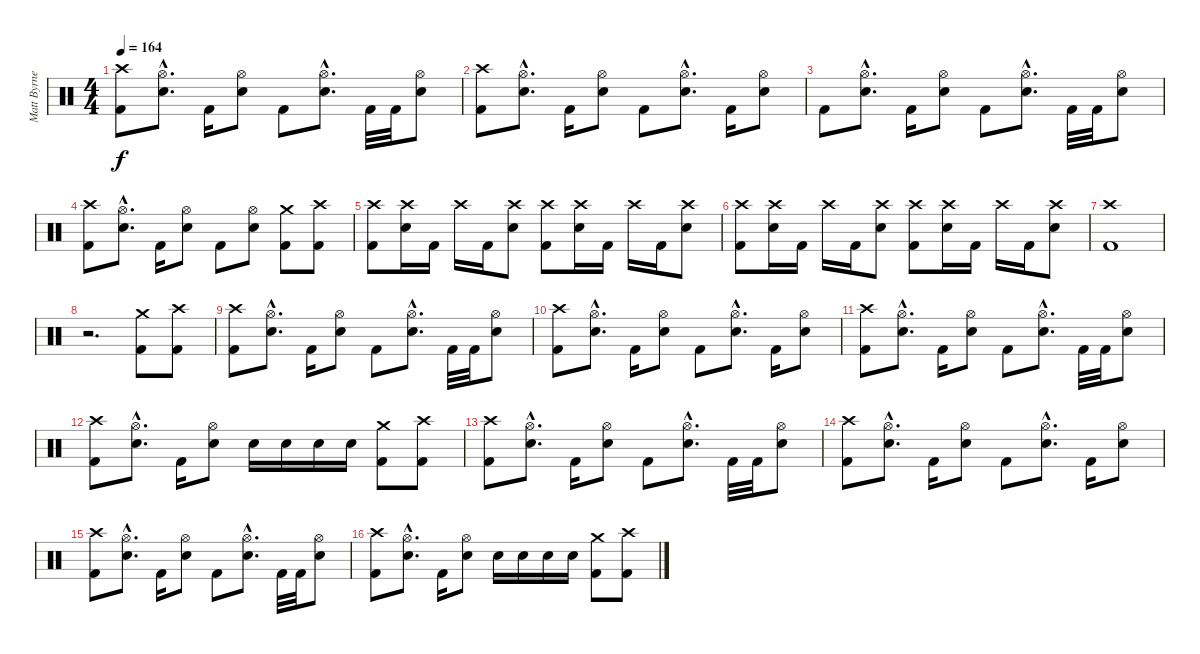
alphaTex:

\track ("Matt Byrne (Drums)" "Matt Byrne") {instrument percussion}
\staff {score}
\articulation defaults
\ts (4 4)
\tempo 164
\clef neutral
\ks c
("Crash high (hit)" "Kick (hit) 2").8{dy f} ("Hi-Hat (open)"{hac} "Snare (hit) 2"{hac}).8{d} "Kick (hit) 2".16 ("Hi-Hat (open)" "Snare (hit) 2").8 "Kick (hit) 2".8 ("Hi-Hat (open)"{hac} "Snare (hit) 2"{hac}).8{d} "Kick (hit) 2".32 "Kick (hit) 2".32 ("Hi-Hat (open)" "Snare (hit) 2").8 |
("Crash high (hit)" "Kick (hit) 2").8 ("Hi-Hat (open)"{hac} "Snare (hit) 2"{hac}).8{d} "Kick (hit) 2".16 ("Hi-Hat (open)" "Snare (hit) 2").8 "Kick (hit) 2".8 ("Hi-Hat (open)"{hac} "Snare (hit) 2"{hac}).8{d} "Kick (hit) 2".16 ("Hi-Hat (open)" "Snare (hit) 2").8 |
"Kick (hit) 2".8 ("Hi-Hat (open)"{hac} "Snare (hit) 2"{hac}).8{d} "Kick (hit) 2".16 ("Hi-Hat (open)" "Snare (hit) 2").8 "Kick (hit) 2".8 ("Hi-Hat (open)"{hac} "Snare (hit) 2"{hac}).8{d} "Kick (hit) 2".32 "Kick (hit) 2".32 ("Hi-Hat (open)" "Snare (hit) 2").8 |
("Crash high (hit)" "Kick (hit) 2").8 ("Hi-Hat (open)"{hac} "Snare (hit) 2"{hac}).8{d} "Kick (hit) 2".16 ("Hi-Hat (open)" "Snare (hit) 2").8 "Kick (hit) 2".8 ("Hi-Hat (open)" "Snare (hit) 2").8 ("Crash medium (hit)" "Kick (hit) 2").8 ("Crash high (hit)" "Kick (hit) 2").8 |
("Crash high (hit)" "Kick (hit) 2").8 ("Crash high (hit)" "Snare (hit) 2").16 "Kick (hit) 2".16 "Crash high (hit)".16 "Kick (hit) 2".16 ("Crash high (hit)" "Snare (hit) 2").8 ("Crash high (hit)" "Kick (hit) 2").8 ("Crash high (hit)" "Snare (hit) 2").16 "Kick (hit) 2".16 "Crash high (hit)".16 "Kick (hit) 2".16 ("Crash high (hit)" "Snare (hit) 2").8 |
("Crash high (hit)" "Kick (hit) 2").8 ("Crash high (hit)" "Snare (hit) 2").16 "Kick (hit) 2".16 "Crash high (hit)".16 "Kick (hit) 2".16 ("Crash high (hit)" "Snare (hit) 2").8 ("Crash high (hit)" "Kick (hit) 2").8 ("Crash high (hit)" "Snare (hit) 2").16 "Kick (hit) 2".16 "Crash high (hit)".16 "Kick (hit) 2".16 ("Crash high (hit)" "Snare (hit) 2").8 |
("Crash high (hit)" "Kick (hit) 2").1 |
r.2{d} ("Crash medium (hit)" "Kick (hit) 2").8 ("Crash high (hit)" "Kick (hit) 2").8 |
("Crash high (hit)" "Kick (hit) 2").8 ("Hi-Hat (open)"{hac} "Snare (hit) 2"{hac}).8{d} "Kick (hit) 2".16 ("Hi-Hat (open)" "Snare (hit) 2").8 "Kick (hit) 2".8 ("Hi-Hat (open)"{hac} "Snare (hit) 2"{hac}).8{d} "Kick (hit) 2".32 "Kick (hit) 2".32 ("Hi-Hat (open)" "Snare (hit) 2").8 |
("Crash high (hit)" "Kick (hit) 2").8 ("Hi-Hat (open)"{hac} "Snare (hit) 2"{hac}).8{d} "Kick (hit) 2".16 ("Hi-Hat (open)" "Snare (hit) 2").8 "Kick (hit) 2".8 ("Hi-Hat (open)"{hac} "Snare (hit) 2"{hac}).8{d} "Kick (hit) 2".16 ("Hi-Hat (open)" "Snare (hit) 2").8 |
("Crash high (hit)" "Kick (hit) 2").8 ("Hi-Hat (open)"{hac} "Snare (hit) 2"{hac}).8{d} "Kick (hit) 2".16 ("Hi-Hat (open)" "Snare (hit) 2").8 "Kick (hit) 2".8 ("Hi-Hat (open)"{hac} "Snare (hit) 2"{hac}).8{d} "Kick (hit) 2".32 "Kick (hit) 2".32 ("Hi-Hat (open)" "Snare (hit) 2").8 |
("Crash high (hit)" "Kick (hit) 2").8 ("Hi-Hat (open)"{hac} "Snare (hit) 2"{hac}).8{d} "Kick (hit) 2".16 ("Hi-Hat (open)" "Snare (hit) 2").8 "Snare (hit) 2".16 "Snare (hit) 2".16 "Snare (hit) 2".16 "Snare (hit) 2".16 ("Crash medium (hit)" "Kick (hit) 2").8 ("Crash high (hit)" "Kick (hit) 2").8 |
("Crash high (hit)" "Kick (hit) 2").8 ("Hi-Hat (open)"{hac} "Snare (hit) 2"{hac}).8{d} "Kick (hit) 2".16 ("Hi-Hat (open)" "Snare (hit) 2").8 "Kick (hit) 2".8 ("Hi-Hat (open)"{hac} "Snare (hit) 2"{hac}).8{d} "Kick (hit) 2".32 "Kick (hit) 2".32 ("Hi-Hat (open)" "Snare (hit) 2").8 |
("Crash high (hit)" "Kick (hit) 2").8 ("Hi-Hat (open)"{hac} "Snare (hit) 2"{hac}).8{d} "Kick (hit) 2".16 ("Hi-Hat (open)" "Snare (hit) 2").8 "Kick (hit) 2".8 ("Hi-Hat (open)"{hac} "Snare (hit) 2"{hac}).8{d} "Kick (hit) 2".16 ("Hi-Hat (open)" "Snare (hit) 2").8 |
("Crash high (hit)" "Kick (hit) 2").8 ("Hi-Hat (open)"{hac} "Snare (hit) 2"{hac}).8{d} "Kick (hit) 2".16 ("Hi-Hat (open)" "Snare (hit) 2").8 "Kick (hit) 2".8 ("Hi-Hat (open)"{hac} "Snare (hit) 2"{hac}).8{d} "Kick (hit) 2".32 "Kick (hit) 2".32 ("Hi-Hat (open)" "Snare (hit) 2").8 |
("Crash high (hit)" "Kick (hit) 2").8 ("Hi-Hat (open)"{hac} "Snare (hit) 2"{hac}).8{d} "Kick (hit) 2".16 ("Hi-Hat (open)" "Snare (hit) 2").8 "Snare (hit) 2".16 "Snare (hit) 2".16 "Snare (hit) 2".16 "Snare (hit) 2".16 ("Crash medium (hit)" "Kick (hit) 2").8 ("Crash high (hit)" "Kick (hit) 2").8
